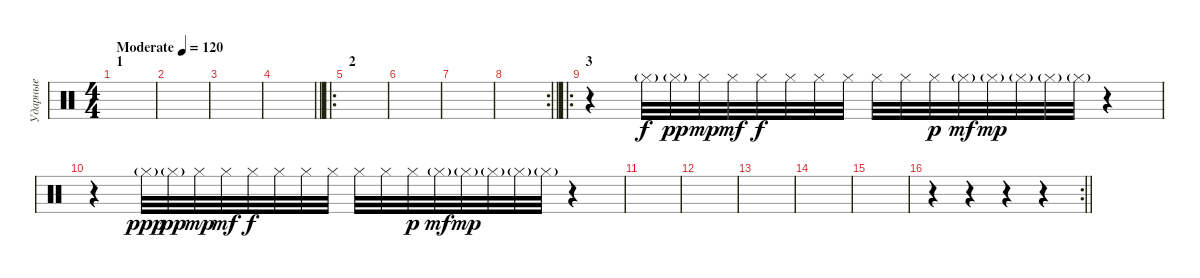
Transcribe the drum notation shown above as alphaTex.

\track ("Ударные" "Ударные") {instrument percussion}
\staff {score}
\articulation defaults
\ts (4 4)
\section ("" "1")
\tempo (120 "Moderate")
\clef neutral
\ks c
|
|
|
\barLineRight lightlight
|
\ro
\section ("" "2")
|
|
|
\rc 2
\barLineRight lightlight
|
\ro
\section ("" "3")
r.4 "Hi-Hat (closed)"{g}.32 "Hi-Hat (closed)"{g}.32{dy pp} "Hi-Hat (closed)".32{dy mp} "Hi-Hat (closed)".32{dy mf} "Hi-Hat (closed)".32{dy f} "Hi-Hat (closed)".32 "Hi-Hat (closed)".32 "Hi-Hat (closed)".32 "Hi-Hat (closed)".32 "Hi-Hat (closed)".32 "Hi-Hat (closed)".32{dy p} "Hi-Hat (closed)"{g}.32{dy mf} "Hi-Hat (closed)"{g}.32{dy mp} "Hi-Hat (closed)"{g}.32 "Hi-Hat (closed)"{g}.32 "Hi-Hat (closed)"{g}.32 r.4 |
r.4 "Hi-Hat (closed)"{g}.32{dy ppp} "Hi-Hat (closed)"{g}.32{dy pp} "Hi-Hat (closed)".32{dy mp} "Hi-Hat (closed)".32{dy mf} "Hi-Hat (closed)".32{dy f} "Hi-Hat (closed)".32 "Hi-Hat (closed)".32 "Hi-Hat (closed)".32 "Hi-Hat (closed)".32 "Hi-Hat (closed)".32 "Hi-Hat (closed)".32{dy p} "Hi-Hat (closed)"{g}.32{dy mf} "Hi-Hat (closed)"{g}.32{dy mp} "Hi-Hat (closed)"{g}.32 "Hi-Hat (closed)"{g}.32 "Hi-Hat (closed)"{g}.32 r.4 |
|
|
|
|
|
\rc 2
\barLineRight lightlight
r.4 r.4 r.4 r.4
